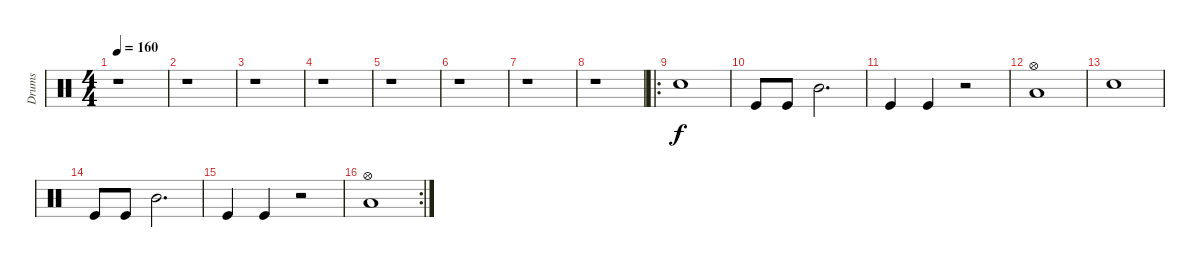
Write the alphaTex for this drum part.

\track ("Drums" "Drums") {instrument percussion}
\staff {score}
\articulation defaults
\ts (4 4)
\tempo 160
\clef neutral
\ks c
r.1{dy f} |
r.1 |
r.1 |
r.1 |
r.1 |
r.1 |
r.1 |
r.1 |
\ro "Snare (hit) 2".1
|
"Kick (hit)".8 "Kick (hit)".8 "Mid Tom (hit)".2{d} |
"Kick (hit)".4 "Kick (hit)".4 r.2 |
("Hi-Hat (open)" "Low Tom (hit)").1 |
"Snare (hit) 2".1 |
"Kick (hit)".8 "Kick (hit)".8 "Mid Tom (hit)".2{d} |
"Kick (hit)".4 "Kick (hit)".4 r.2 |
\rc 2
("Hi-Hat (open)" "Low Tom (hit)").1
